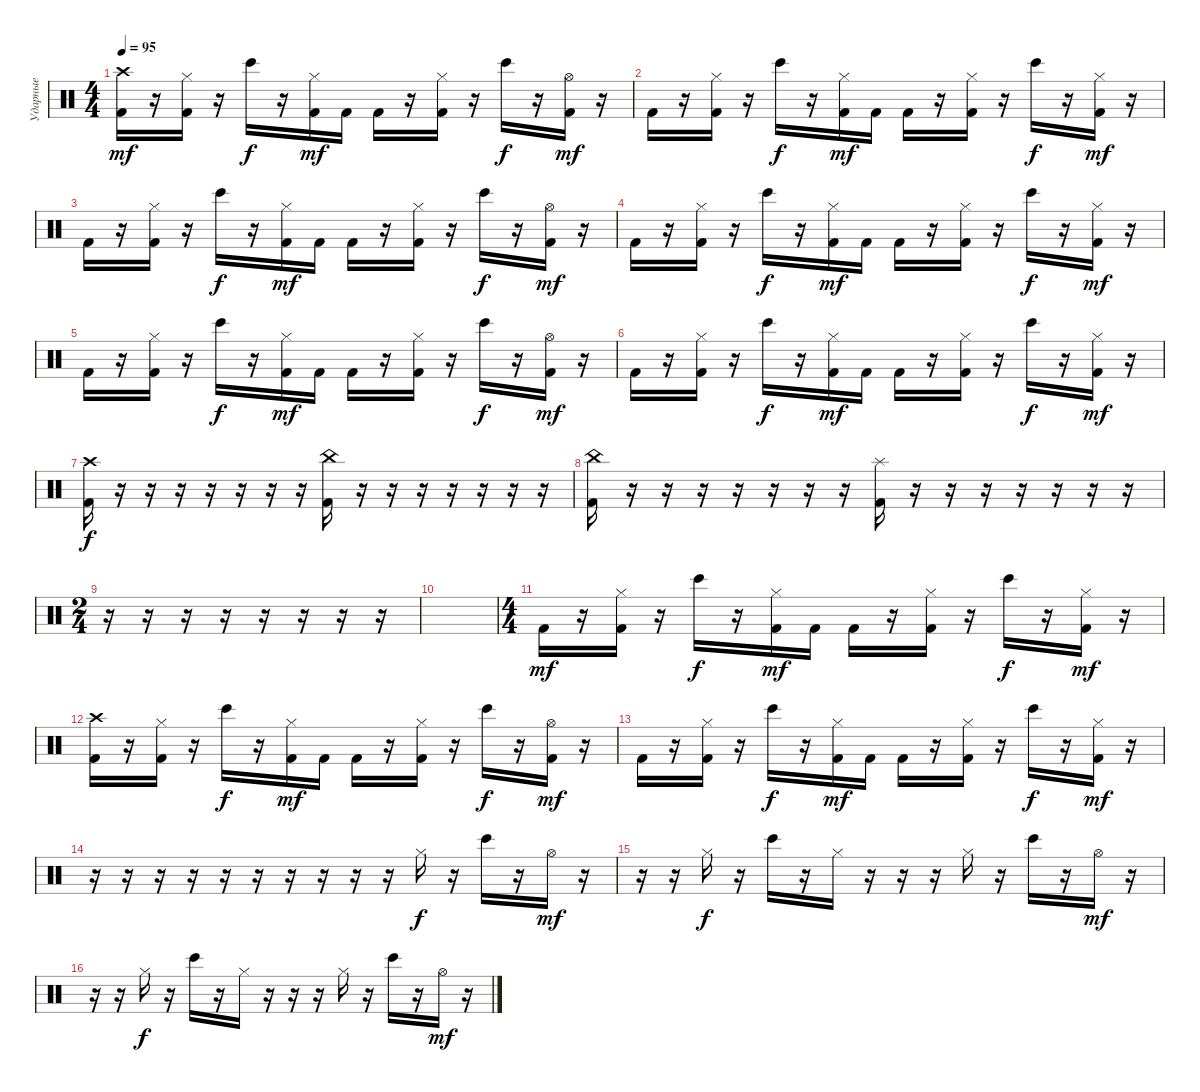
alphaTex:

\track ("Ударные" "Ударные") {instrument percussion}
\staff {score}
\articulation defaults
\ts (4 4)
\tempo 95
\clef neutral
\ks c
("Crash high (hit)" "Kick (hit) 2").16{dy mf} r.16 ("Hi-Hat (closed)" "Kick (hit) 2").16 r.16 "Bongo High (hit)".16{dy f} r.16 ("Hi-Hat (closed)" "Kick (hit) 2").16{dy mf} "Kick (hit) 2".16 "Kick (hit) 2".16 r.16 ("Hi-Hat (closed)" "Kick (hit) 2").16 r.16 "Bongo High (hit)".16{dy f} r.16 ("Hi-Hat (open)" "Kick (hit) 2").16{dy mf} r.16 |
"Kick (hit) 2".16 r.16 ("Hi-Hat (closed)" "Kick (hit) 2").16 r.16 "Bongo High (hit)".16{dy f} r.16 ("Hi-Hat (closed)" "Kick (hit) 2").16{dy mf} "Kick (hit) 2".16 "Kick (hit) 2".16 r.16 ("Hi-Hat (closed)" "Kick (hit) 2").16 r.16 "Bongo High (hit)".16{dy f} r.16 ("Hi-Hat (closed)" "Kick (hit) 2").16{dy mf} r.16 |
"Kick (hit) 2".16 r.16 ("Hi-Hat (closed)" "Kick (hit) 2").16 r.16 "Bongo High (hit)".16{dy f} r.16 ("Hi-Hat (closed)" "Kick (hit) 2").16{dy mf} "Kick (hit) 2".16 "Kick (hit) 2".16 r.16 ("Hi-Hat (closed)" "Kick (hit) 2").16 r.16 "Bongo High (hit)".16{dy f} r.16 ("Hi-Hat (open)" "Kick (hit) 2").16{dy mf} r.16 |
"Kick (hit) 2".16 r.16 ("Hi-Hat (closed)" "Kick (hit) 2").16 r.16 "Bongo High (hit)".16{dy f} r.16 ("Hi-Hat (closed)" "Kick (hit) 2").16{dy mf} "Kick (hit) 2".16 "Kick (hit) 2".16 r.16 ("Hi-Hat (closed)" "Kick (hit) 2").16 r.16 "Bongo High (hit)".16{dy f} r.16 ("Hi-Hat (closed)" "Kick (hit) 2").16{dy mf} r.16 |
"Kick (hit) 2".16 r.16 ("Hi-Hat (closed)" "Kick (hit) 2").16 r.16 "Bongo High (hit)".16{dy f} r.16 ("Hi-Hat (closed)" "Kick (hit) 2").16{dy mf} "Kick (hit) 2".16 "Kick (hit) 2".16 r.16 ("Hi-Hat (closed)" "Kick (hit) 2").16 r.16 "Bongo High (hit)".16{dy f} r.16 ("Hi-Hat (open)" "Kick (hit) 2").16{dy mf} r.16 |
"Kick (hit) 2".16 r.16 ("Hi-Hat (closed)" "Kick (hit) 2").16 r.16 "Bongo High (hit)".16{dy f} r.16 ("Hi-Hat (closed)" "Kick (hit) 2").16{dy mf} "Kick (hit) 2".16 "Kick (hit) 2".16 r.16 ("Hi-Hat (closed)" "Kick (hit) 2").16 r.16 "Bongo High (hit)".16{dy f} r.16 ("Hi-Hat (closed)" "Kick (hit) 2").16{dy mf} r.16 |
("Kick (hit) 2" "Crash high (hit)").16{dy f} r.16 r.16 r.16 r.16 r.16 r.16 r.16 ("Kick (hit) 2" "China (hit)").16 r.16 r.16 r.16 r.16 r.16 r.16 r.16 |
("Kick (hit) 2" "China (hit)").16 r.16 r.16 r.16 r.16 r.16 r.16 r.16 ("Kick (hit) 2" "Splash (hit)").16 r.16 r.16 r.16 r.16 r.16 r.16 r.16 |
\ts (2 4)
r.16 r.16 r.16 r.16 r.16 r.16 r.16 r.16 |
|
\ts (4 4)
"Kick (hit) 2".16{dy mf} r.16 ("Hi-Hat (closed)" "Kick (hit) 2").16 r.16 "Bongo High (hit)".16{dy f} r.16 ("Hi-Hat (closed)" "Kick (hit) 2").16{dy mf} "Kick (hit) 2".16 "Kick (hit) 2".16 r.16 ("Hi-Hat (closed)" "Kick (hit) 2").16 r.16 "Bongo High (hit)".16{dy f} r.16 ("Hi-Hat (closed)" "Kick (hit) 2").16{dy mf} r.16 |
("Crash high (hit)" "Kick (hit) 2").16 r.16 ("Hi-Hat (closed)" "Kick (hit) 2").16 r.16 "Bongo High (hit)".16{dy f} r.16 ("Hi-Hat (closed)" "Kick (hit) 2").16{dy mf} "Kick (hit) 2".16 "Kick (hit) 2".16 r.16 ("Hi-Hat (closed)" "Kick (hit) 2").16 r.16 "Bongo High (hit)".16{dy f} r.16 ("Hi-Hat (open)" "Kick (hit) 2").16{dy mf} r.16 |
"Kick (hit) 2".16 r.16 ("Hi-Hat (closed)" "Kick (hit) 2").16 r.16 "Bongo High (hit)".16{dy f} r.16 ("Hi-Hat (closed)" "Kick (hit) 2").16{dy mf} "Kick (hit) 2".16 "Kick (hit) 2".16 r.16 ("Hi-Hat (closed)" "Kick (hit) 2").16 r.16 "Bongo High (hit)".16{dy f} r.16 ("Hi-Hat (closed)" "Kick (hit) 2").16{dy mf} r.16 |
r.16 r.16 r.16 r.16 r.16 r.16 r.16 r.16 r.16 r.16 "Hi-Hat (closed)".16{dy f} r.16 "Bongo High (hit)".16 r.16 "Hi-Hat (open)".16{dy mf} r.16 |
r.16 r.16 "Hi-Hat (closed)".16{dy f} r.16 "Bongo High (hit)".16 r.16 "Hi-Hat (closed)".16 r.16 r.16 r.16 "Hi-Hat (closed)".16 r.16 "Bongo High (hit)".16 r.16 "Hi-Hat (open)".16{dy mf} r.16 |
r.16 r.16 "Hi-Hat (closed)".16{dy f} r.16 "Bongo High (hit)".16 r.16 "Hi-Hat (closed)".16 r.16 r.16 r.16 "Hi-Hat (closed)".16 r.16 "Bongo High (hit)".16 r.16 "Hi-Hat (open)".16{dy mf} r.16
